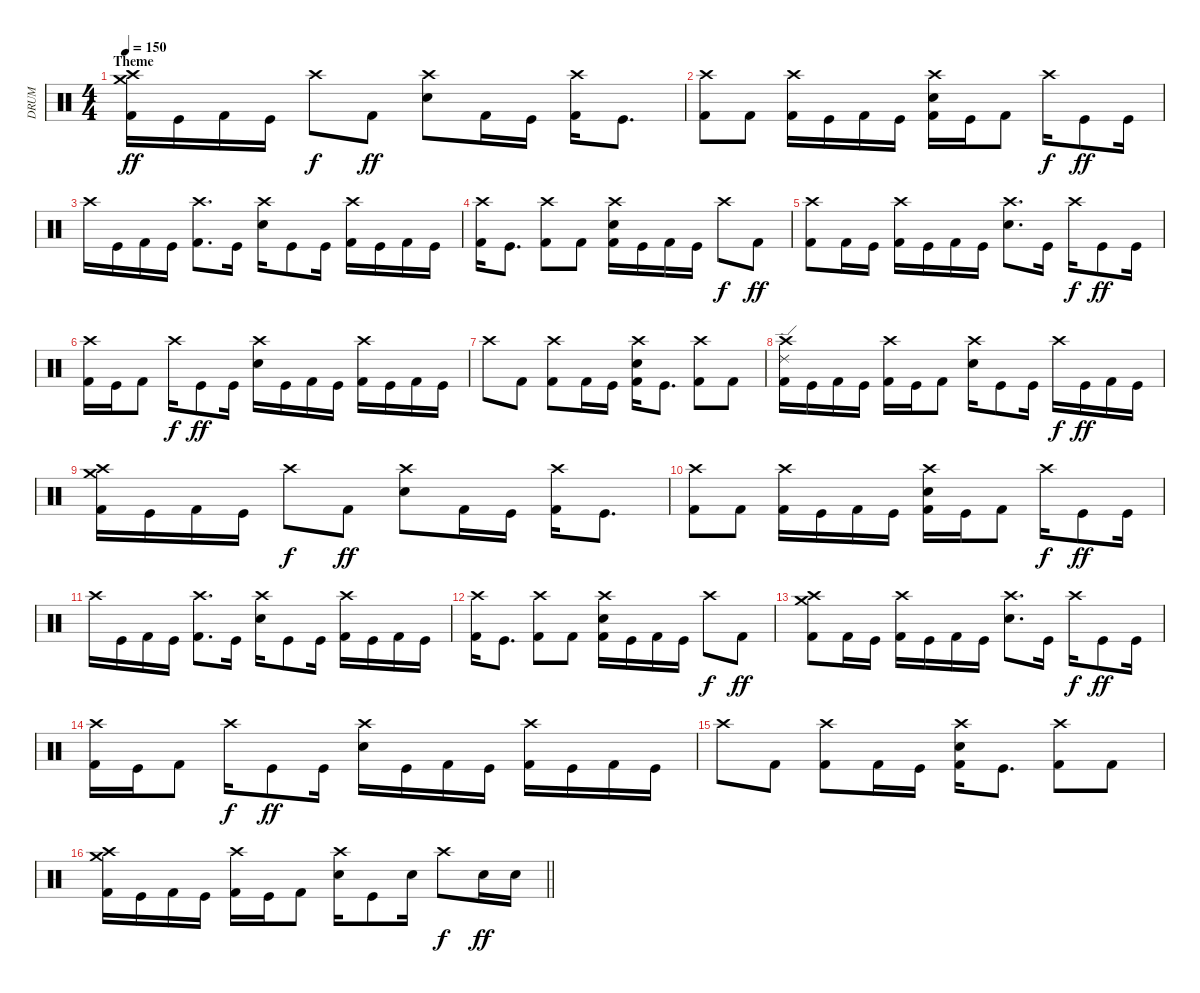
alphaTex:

\track ("DRUM" "DRUM") {instrument percussion}
\staff {score}
\articulation defaults
\ts (4 4)
\section ("" "Theme")
\tempo 150
\clef neutral
\ks c
("Crash high (hit)" "Crash medium (hit)" "Kick (hit) 2").16{dy ff} "Kick (hit)".16 "Kick (hit) 2".16 "Kick (hit)".16 "Crash high (hit)".8{dy f} "Kick (hit) 2".8{dy ff} ("Crash high (hit)" "Snare (hit) 2").8 "Kick (hit) 2".16 "Kick (hit)".16 ("Crash high (hit)" "Kick (hit) 2").16 "Kick (hit)".8{d} |
("Crash high (hit)" "Kick (hit) 2").8 "Kick (hit) 2".8 ("Crash high (hit)" "Kick (hit) 2").16 "Kick (hit)".16 "Kick (hit) 2".16 "Kick (hit)".16 ("Crash high (hit)" "Snare (hit) 2" "Kick (hit) 2").16 "Kick (hit)".16 "Kick (hit) 2".8 "Crash high (hit)".16{dy f} "Kick (hit)".8{dy ff} "Kick (hit)".16 |
"Crash high (hit)".16 "Kick (hit)".16 "Kick (hit) 2".16 "Kick (hit)".16 ("Crash high (hit)" "Kick (hit) 2").8{d} "Kick (hit)".16 ("Crash high (hit)" "Snare (hit) 2").16 "Kick (hit)".8 "Kick (hit)".16 ("Crash high (hit)" "Kick (hit) 2").16 "Kick (hit)".16 "Kick (hit) 2".16 "Kick (hit)".16 |
("Crash high (hit)" "Kick (hit) 2").16 "Kick (hit)".8{d} ("Crash high (hit)" "Kick (hit) 2").8 "Kick (hit) 2".8 ("Crash high (hit)" "Snare (hit) 2" "Kick (hit) 2").16 "Kick (hit)".16 "Kick (hit) 2".16 "Kick (hit)".16 "Crash high (hit)".8{dy f} "Kick (hit) 2".8{dy ff} |
("Crash high (hit)" "Kick (hit) 2").8 "Kick (hit) 2".16 "Kick (hit)".16 ("Crash high (hit)" "Kick (hit) 2").16 "Kick (hit)".16 "Kick (hit) 2".16 "Kick (hit)".16 ("Crash high (hit)" "Snare (hit) 2").8{d} "Kick (hit)".16 "Crash high (hit)".16{dy f} "Kick (hit)".8{dy ff} "Kick (hit)".16 |
("Crash high (hit)" "Kick (hit) 2").16 "Kick (hit)".16 "Kick (hit) 2".8 "Crash high (hit)".16{dy f} "Kick (hit)".8{dy ff} "Kick (hit)".16 ("Crash high (hit)" "Snare (hit) 2").16 "Kick (hit)".16 "Kick (hit) 2".16 "Kick (hit)".16 ("Crash high (hit)" "Kick (hit) 2").16 "Kick (hit)".16 "Kick (hit) 2".16 "Kick (hit)".16 |
"Crash high (hit)".8 "Kick (hit) 2".8 ("Crash high (hit)" "Kick (hit) 2").8 "Kick (hit) 2".16 "Kick (hit)".16 ("Crash high (hit)" "Snare (hit) 2" "Kick (hit) 2").16 "Kick (hit)".8{d} ("Crash high (hit)" "Kick (hit) 2").8 "Kick (hit) 2".8 |
("Crash high (hit)" "Ride (edge) 2" "Kick (hit) 2").16 "Kick (hit)".16 "Kick (hit) 2".16 "Kick (hit)".16 ("Crash high (hit)" "Kick (hit) 2").16 "Kick (hit)".16 "Kick (hit) 2".8 ("Crash high (hit)" "Snare (hit) 2").16 "Kick (hit)".8 "Kick (hit)".16 "Crash high (hit)".16{dy f} "Kick (hit)".16{dy ff} "Kick (hit) 2".16 "Kick (hit)".16 |
("Crash high (hit)" "Crash medium (hit)" "Kick (hit) 2").16 "Kick (hit)".16 "Kick (hit) 2".16 "Kick (hit)".16 "Crash high (hit)".8{dy f} "Kick (hit) 2".8{dy ff} ("Crash high (hit)" "Snare (hit) 2").8 "Kick (hit) 2".16 "Kick (hit)".16 ("Crash high (hit)" "Kick (hit) 2").16 "Kick (hit)".8{d} |
("Crash high (hit)" "Kick (hit) 2").8 "Kick (hit) 2".8 ("Crash high (hit)" "Kick (hit) 2").16 "Kick (hit)".16 "Kick (hit) 2".16 "Kick (hit)".16 ("Crash high (hit)" "Snare (hit) 2" "Kick (hit) 2").16 "Kick (hit)".16 "Kick (hit) 2".8 "Crash high (hit)".16{dy f} "Kick (hit)".8{dy ff} "Kick (hit)".16 |
"Crash high (hit)".16 "Kick (hit)".16 "Kick (hit) 2".16 "Kick (hit)".16 ("Crash high (hit)" "Kick (hit) 2").8{d} "Kick (hit)".16 ("Crash high (hit)" "Snare (hit) 2").16 "Kick (hit)".8 "Kick (hit)".16 ("Crash high (hit)" "Kick (hit) 2").16 "Kick (hit)".16 "Kick (hit) 2".16 "Kick (hit)".16 |
("Crash high (hit)" "Kick (hit) 2").16 "Kick (hit)".8{d} ("Crash high (hit)" "Kick (hit) 2").8 "Kick (hit) 2".8 ("Crash high (hit)" "Snare (hit) 2" "Kick (hit) 2").16 "Kick (hit)".16 "Kick (hit) 2".16 "Kick (hit)".16 "Crash high (hit)".8{dy f} "Kick (hit) 2".8{dy ff} |
("Crash high (hit)" "Crash medium (hit)" "Kick (hit) 2").8 "Kick (hit) 2".16 "Kick (hit)".16 ("Crash high (hit)" "Kick (hit) 2").16 "Kick (hit)".16 "Kick (hit) 2".16 "Kick (hit)".16 ("Crash high (hit)" "Snare (hit) 2").8{d} "Kick (hit)".16 "Crash high (hit)".16{dy f} "Kick (hit)".8{dy ff} "Kick (hit)".16 |
("Crash high (hit)" "Kick (hit) 2").16 "Kick (hit)".16 "Kick (hit) 2".8 "Crash high (hit)".16{dy f} "Kick (hit)".8{dy ff} "Kick (hit)".16 ("Crash high (hit)" "Snare (hit) 2").16 "Kick (hit)".16 "Kick (hit) 2".16 "Kick (hit)".16 ("Crash high (hit)" "Kick (hit) 2").16 "Kick (hit)".16 "Kick (hit) 2".16 "Kick (hit)".16 |
"Crash high (hit)".8 "Kick (hit) 2".8 ("Crash high (hit)" "Kick (hit) 2").8 "Kick (hit) 2".16 "Kick (hit)".16 ("Crash high (hit)" "Snare (hit) 2" "Kick (hit) 2").16 "Kick (hit)".8{d} ("Crash high (hit)" "Kick (hit) 2").8 "Kick (hit) 2".8 |
\barLineRight lightlight
("Crash high (hit)" "Crash medium (hit)" "Kick (hit) 2").16 "Kick (hit)".16 "Kick (hit) 2".16 "Kick (hit)".16 ("Crash high (hit)" "Kick (hit) 2").16 "Kick (hit)".16 "Kick (hit) 2".8 ("Crash high (hit)" "Snare (hit) 2").16 "Kick (hit)".8 "Snare (hit) 2".16 "Crash high (hit)".8{dy f} "Electric Snare (hit)".16{dy ff} "Snare (hit) 2".16
